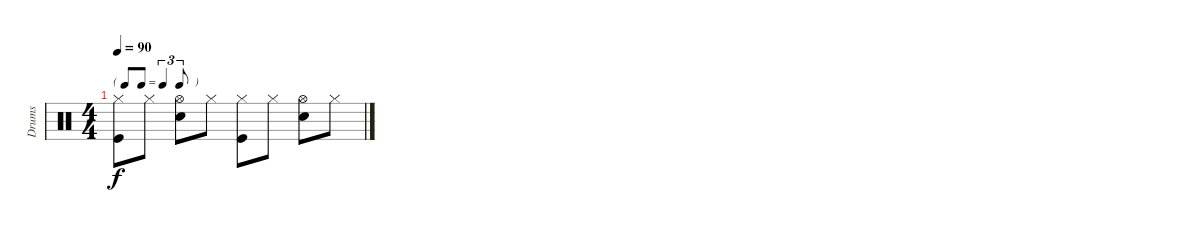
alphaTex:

\track ("Drums" "Drums") {instrument percussion}
\staff {score}
\articulation defaults
\ts (4 4)
\tf triplet8th
\tempo 90
\clef neutral
\ks c
("Hi-Hat (closed)" "Kick (hit)").8{dy f} "Hi-Hat (closed)".8 ("Hi-Hat (open)" "Snare (hit) 2").8 "Hi-Hat (closed)".8 ("Hi-Hat (closed)" "Kick (hit)").8 "Hi-Hat (closed)".8 ("Hi-Hat (open)" "Snare (hit) 2").8 "Hi-Hat (closed)".8
